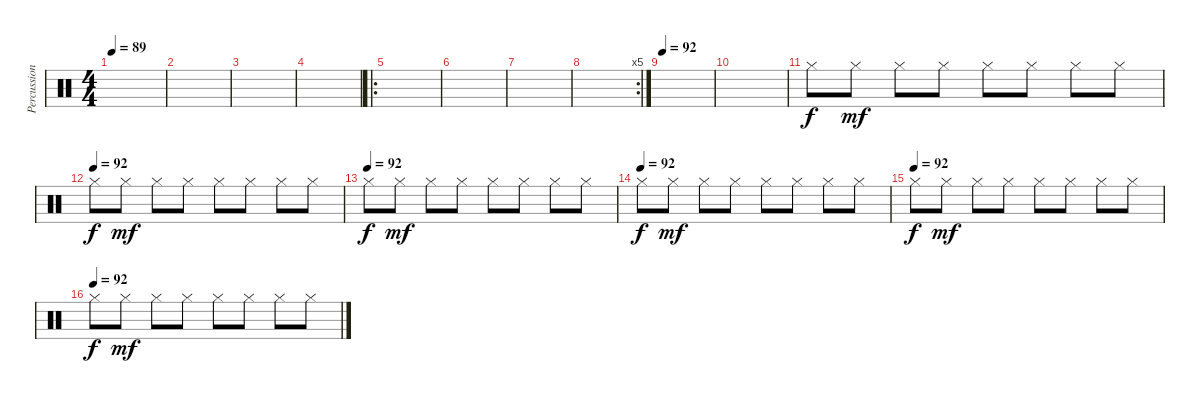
\track ("Percussion" "Percussion") {instrument percussion}
\staff {score}
\articulation defaults
\ts (4 4)
\tempo 89
\clef neutral
\ks c
|
|
|
|
\ro
|
|
|
\rc 5
|
\tempo 92
|
|
"Hi-Hat (closed)".8 "Hi-Hat (closed)".8{dy mf} "Hi-Hat (closed)".8 "Hi-Hat (closed)".8 "Hi-Hat (closed)".8 "Hi-Hat (closed)".8 "Hi-Hat (closed)".8 "Hi-Hat (closed)".8 |
\tempo (92)
"Hi-Hat (closed)".8{dy f} "Hi-Hat (closed)".8{dy mf} "Hi-Hat (closed)".8 "Hi-Hat (closed)".8 "Hi-Hat (closed)".8 "Hi-Hat (closed)".8 "Hi-Hat (closed)".8 "Hi-Hat (closed)".8 |
\tempo (92)
"Hi-Hat (closed)".8{dy f} "Hi-Hat (closed)".8{dy mf} "Hi-Hat (closed)".8 "Hi-Hat (closed)".8 "Hi-Hat (closed)".8 "Hi-Hat (closed)".8 "Hi-Hat (closed)".8 "Hi-Hat (closed)".8 |
\tempo (92)
"Hi-Hat (closed)".8{dy f} "Hi-Hat (closed)".8{dy mf} "Hi-Hat (closed)".8 "Hi-Hat (closed)".8 "Hi-Hat (closed)".8 "Hi-Hat (closed)".8 "Hi-Hat (closed)".8 "Hi-Hat (closed)".8 |
\tempo (92)
"Hi-Hat (closed)".8{dy f} "Hi-Hat (closed)".8{dy mf} "Hi-Hat (closed)".8 "Hi-Hat (closed)".8 "Hi-Hat (closed)".8 "Hi-Hat (closed)".8 "Hi-Hat (closed)".8 "Hi-Hat (closed)".8 |
\tempo (92)
"Hi-Hat (closed)".8{dy f} "Hi-Hat (closed)".8{dy mf} "Hi-Hat (closed)".8 "Hi-Hat (closed)".8 "Hi-Hat (closed)".8 "Hi-Hat (closed)".8 "Hi-Hat (closed)".8 "Hi-Hat (closed)".8
